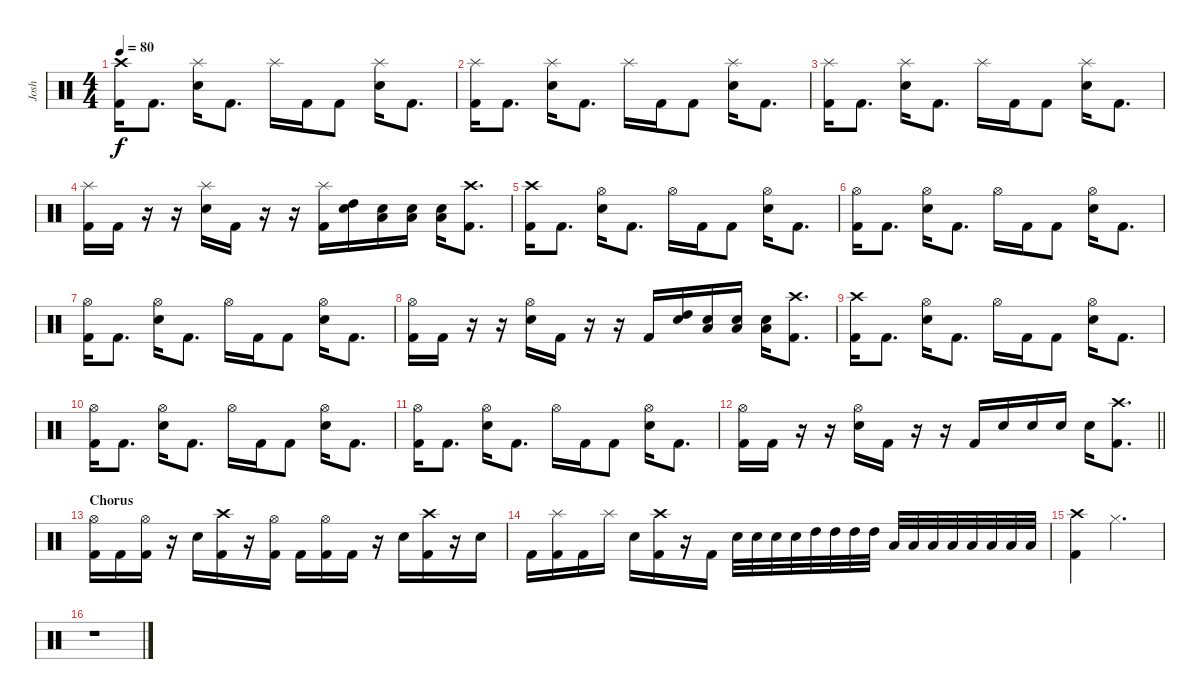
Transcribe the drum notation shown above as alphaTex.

\track ("Josh" "Josh") {instrument percussion}
\staff {score}
\articulation defaults
\ts (4 4)
\tempo 80
\clef neutral
\ks c
("Crash high (hit)" "Kick (hit) 2").16{dy f} "Kick (hit) 2".8{d} ("Splash (hit)" "Electric Snare (hit)").16 "Kick (hit) 2".8{d} "Splash (hit)".16 "Kick (hit) 2".16 "Kick (hit) 2".8 ("Splash (hit)" "Electric Snare (hit)").16 "Kick (hit) 2".8{d} |
("Splash (hit)" "Kick (hit) 2").16 "Kick (hit) 2".8{d} ("Splash (hit)" "Electric Snare (hit)").16 "Kick (hit) 2".8{d} "Splash (hit)".16 "Kick (hit) 2".16 "Kick (hit) 2".8 ("Splash (hit)" "Electric Snare (hit)").16 "Kick (hit) 2".8{d} |
("Splash (hit)" "Kick (hit) 2").16 "Kick (hit) 2".8{d} ("Splash (hit)" "Electric Snare (hit)").16 "Kick (hit) 2".8{d} "Splash (hit)".16 "Kick (hit) 2".16 "Kick (hit) 2".8 ("Splash (hit)" "Electric Snare (hit)").16 "Kick (hit) 2".8{d} |
("Splash (hit)" "Kick (hit) 2").16 "Kick (hit) 2".16 r.16 r.16 ("Splash (hit)" "Electric Snare (hit)").16 "Kick (hit) 2".16 r.16 r.16 ("Splash (hit)" "Kick (hit) 2").16 ("High Tom (hit)" "Electric Snare (hit)").16 ("Electric Snare (hit)" "Low Floor Tom (hit)").16 ("Electric Snare (hit)" "Low Floor Tom (hit)").16 ("Electric Snare (hit)" "Low Floor Tom (hit)").16 ("Crash high (hit)" "Kick (hit) 2").8{d} |
("Crash high (hit)" "Kick (hit) 2").16 "Kick (hit) 2".8{d} ("Hi-Hat (open)" "Electric Snare (hit)").16 "Kick (hit) 2".8{d} "Hi-Hat (open)".16 "Kick (hit) 2".16 "Kick (hit) 2".8 ("Hi-Hat (open)" "Electric Snare (hit)").16 "Kick (hit) 2".8{d} |
("Hi-Hat (open)" "Kick (hit) 2").16 "Kick (hit) 2".8{d} ("Hi-Hat (open)" "Electric Snare (hit)").16 "Kick (hit) 2".8{d} "Hi-Hat (open)".16 "Kick (hit) 2".16 "Kick (hit) 2".8 ("Hi-Hat (open)" "Electric Snare (hit)").16 "Kick (hit) 2".8{d} |
("Hi-Hat (open)" "Kick (hit) 2").16 "Kick (hit) 2".8{d} ("Hi-Hat (open)" "Electric Snare (hit)").16 "Kick (hit) 2".8{d} "Hi-Hat (open)".16 "Kick (hit) 2".16 "Kick (hit) 2".8 ("Hi-Hat (open)" "Electric Snare (hit)").16 "Kick (hit) 2".8{d} |
("Hi-Hat (open)" "Kick (hit) 2").16 "Kick (hit) 2".16 r.16 r.16 ("Hi-Hat (open)" "Electric Snare (hit)").16 "Kick (hit) 2".16 r.16 r.16 "Kick (hit) 2".16 ("High Tom (hit)" "Electric Snare (hit)").16 ("Electric Snare (hit)" "Low Floor Tom (hit)").16 ("Electric Snare (hit)" "Low Floor Tom (hit)").16 ("Electric Snare (hit)" "Low Floor Tom (hit)").16 ("Crash high (hit)" "Kick (hit) 2").8{d} |
("Crash high (hit)" "Kick (hit) 2").16 "Kick (hit) 2".8{d} ("Hi-Hat (open)" "Electric Snare (hit)").16 "Kick (hit) 2".8{d} "Hi-Hat (open)".16 "Kick (hit) 2".16 "Kick (hit) 2".8 ("Hi-Hat (open)" "Electric Snare (hit)").16 "Kick (hit) 2".8{d} |
("Hi-Hat (open)" "Kick (hit) 2").16 "Kick (hit) 2".8{d} ("Hi-Hat (open)" "Electric Snare (hit)").16 "Kick (hit) 2".8{d} "Hi-Hat (open)".16 "Kick (hit) 2".16 "Kick (hit) 2".8 ("Hi-Hat (open)" "Electric Snare (hit)").16 "Kick (hit) 2".8{d} |
("Hi-Hat (open)" "Kick (hit) 2").16 "Kick (hit) 2".8{d} ("Hi-Hat (open)" "Electric Snare (hit)").16 "Kick (hit) 2".8{d} "Hi-Hat (open)".16 "Kick (hit) 2".16 "Kick (hit) 2".8 ("Hi-Hat (open)" "Electric Snare (hit)").16 "Kick (hit) 2".8{d} |
\barLineRight lightlight
("Hi-Hat (open)" "Kick (hit) 2").16 "Kick (hit) 2".16 r.16 r.16 ("Hi-Hat (open)" "Electric Snare (hit)").16 "Kick (hit) 2".16 r.16 r.16 "Kick (hit) 2".16 "Electric Snare (hit)".16 "Electric Snare (hit)".16 "Electric Snare (hit)".16 "Electric Snare (hit)".16 ("Crash high (hit)" "Kick (hit) 2").8{d} |
\section ("" "Chorus")
("Hi-Hat (open)" "Kick (hit) 2").16 "Kick (hit) 2".16 ("Hi-Hat (open)" "Kick (hit) 2").16 r.16 "Electric Snare (hit)".16 ("Crash high (hit)" "Kick (hit) 2").16 r.16 ("Hi-Hat (open)" "Kick (hit) 2").16 "Kick (hit) 2".16 ("Hi-Hat (open)" "Kick (hit) 2").16 "Kick (hit) 2".16 r.16 "Electric Snare (hit)".16 ("Crash high (hit)" "Kick (hit) 2").16 r.16 "Electric Snare (hit)".16 |
"Kick (hit) 2".16 ("Splash (hit)" "Kick (hit) 2").16 "Kick (hit) 2".16 "Splash (hit)".16 "Electric Snare (hit)".16 ("Crash high (hit)" "Kick (hit) 2").16 r.16 "Kick (hit) 2".16 "Electric Snare (hit)".32 "Electric Snare (hit)".32 "Electric Snare (hit)".32 "Electric Snare (hit)".32 "High Tom (hit)".32 "High Tom (hit)".32 "High Tom (hit)".32 "High Tom (hit)".32 "Low Floor Tom (hit)".32 "Low Floor Tom (hit)".32 "Low Floor Tom (hit)".32 "Low Floor Tom (hit)".32 "Low Floor Tom (hit)".32 "Low Floor Tom (hit)".32 "Low Floor Tom (hit)".32 "Low Floor Tom (hit)".32 |
("Crash high (hit)" "Kick (hit) 2").4 "Hi-Hat (closed)".2{d} |
r.1
